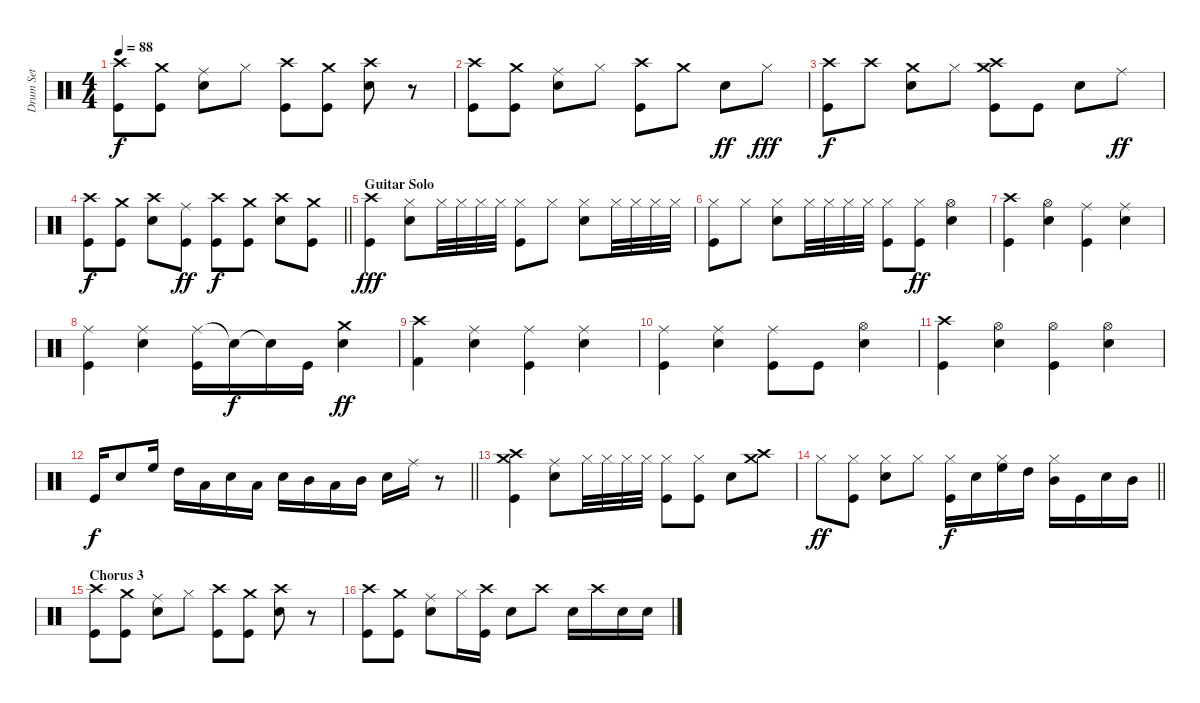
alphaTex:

\track ("Drum Set" "Drum Set") {instrument percussion}
\staff {score}
\articulation defaults
\ts (4 4)
\tempo 88
\clef neutral
\ks c
("Crash high (hit)" "Kick (hit)").8{dy f} ("Crash medium (hit)" "Kick (hit)").8 ("Ride (middle)" "Snare (hit) 2").8 "Hi-Hat (closed)".8 ("Crash high (hit)" "Kick (hit)").8 ("Crash medium (hit)" "Kick (hit)").8 ("Crash high (hit)" "Snare (hit) 2").8 r.8 |
("Crash high (hit)" "Kick (hit)").8 ("Crash medium (hit)" "Kick (hit)").8 ("Ride (middle)" "Snare (hit) 2").8 "Hi-Hat (closed)".8 ("Crash high (hit)" "Kick (hit)").8 "Crash medium (hit)".8 "Snare (hit) 2".8{dy ff} "Hi-Hat (closed)".8{dy fff} |
("Crash high (hit)" "Kick (hit)").8{dy f} "Crash high (hit)".8 ("Crash medium (hit)" "Snare (hit) 2").8 "Hi-Hat (closed)".8 ("Crash high (hit)" "Crash medium (hit)" "Kick (hit)").8 "Kick (hit)".8 "Snare (hit) 2".8 "Ride (middle)".8{dy ff} |
\barLineRight lightlight
("Crash high (hit)" "Kick (hit)").8{dy f} ("Crash medium (hit)" "Kick (hit)").8 ("Crash high (hit)" "Snare (hit) 2").8 ("Ride (middle)" "Kick (hit)").8{dy ff} ("Crash high (hit)" "Kick (hit)").8{dy f} ("Crash medium (hit)" "Kick (hit)").8 ("Crash high (hit)" "Snare (hit) 2").8 ("Crash medium (hit)" "Kick (hit)").8 |
\section ("" "Guitar Solo")
("Crash high (hit)" "Kick (hit)").4{dy fff} ("Hi-Hat (closed)" "Snare (hit) 2").8 "Hi-Hat (closed)".32 "Hi-Hat (closed)".32 "Hi-Hat (closed)".32 "Hi-Hat (closed)".32 ("Hi-Hat (closed)" "Kick (hit)").8 "Hi-Hat (closed)".8 ("Hi-Hat (closed)" "Snare (hit) 2").8 "Hi-Hat (closed)".32 "Hi-Hat (closed)".32 "Hi-Hat (closed)".32 "Hi-Hat (closed)".32 |
("Hi-Hat (closed)" "Kick (hit)").8 "Hi-Hat (closed)".8 ("Hi-Hat (closed)" "Snare (hit) 2").8 "Hi-Hat (closed)".32 "Hi-Hat (closed)".32 "Hi-Hat (closed)".32 "Hi-Hat (closed)".32 ("Hi-Hat (closed)" "Kick (hit)").8 ("Hi-Hat (closed)" "Kick (hit)").8{dy ff} ("Hi-Hat (open)" "Snare (hit) 2").4 |
("Crash high (hit)" "Kick (hit)").4 ("Hi-Hat (open)" "Snare (hit) 2").4 ("Ride (middle)" "Kick (hit)").4 ("Ride (middle)" "Snare (hit) 2").4 |
("Ride (middle)" "Kick (hit)").4 ("Ride (middle)" "Snare (hit) 2").4 ("Ride (middle)" "Kick (hit)").16 "Snare (hit)"{t}.16{dy f} "Snare (hit)"{t}.16 "Kick (hit)".16 ("Crash medium (hit)" "Snare (hit) 2").4{dy ff} |
("Crash high (hit)" "Kick (hit) 2").4 ("Ride (middle)" "Snare (hit) 2").4 ("Ride (middle)" "Kick (hit)").4 ("Ride (middle)" "Snare (hit) 2").4 |
("Ride (middle)" "Kick (hit)").4 ("Ride (middle)" "Snare (hit) 2").4 ("Ride (middle)" "Kick (hit)").8 "Kick (hit)".8 ("Hi-Hat (open)" "Snare (hit) 2").4 |
("Crash high (hit)" "Kick (hit)").4 ("Hi-Hat (open)" "Snare (hit) 2").4 ("Hi-Hat (open)" "Kick (hit)").4 ("Hi-Hat (open)" "Snare (hit) 2").4 |
\barLineRight lightlight "Kick (hit)".16{dy f} "Snare (hit) 2".8 "High Floor Tom (hit)".16 "High Tom (hit)".16 "Low Tom (hit)".16 "Snare (hit) 2".16 "Low Tom (hit)".16 "Snare (hit) 2".16 "Mid Tom (hit)".16 "Low Tom (hit)".16 "Mid Tom (hit)".16 "Snare (hit) 2".16 "Ride (middle)".16
r.8 |
("Crash high (hit)" "Crash medium (hit)" "Kick (hit)").4 ("Ride (middle)" "Snare (hit) 2").8 "Hi-Hat (closed)".32 "Hi-Hat (closed)".32 "Hi-Hat (closed)".32 "Hi-Hat (closed)".32 ("Hi-Hat (closed)" "Kick (hit)").8 ("Hi-Hat (closed)" "Kick (hit)").8 "Snare (hit) 2".8 ("Crash high (hit)" "Crash medium (hit)").8 |
\barLineRight lightlight "Hi-Hat (closed)".8{dy ff}
("Hi-Hat (closed)" "Kick (hit)").8 ("Hi-Hat (closed)" "Snare (hit) 2").8 "Hi-Hat (closed)".8 ("Hi-Hat (closed)" "Kick (hit)").16{dy f} "Snare (hit) 2".16 ("High Floor Tom (hit)" "Hi-Hat (closed)").16 "High Tom (hit)".16 ("Hi-Hat (closed)" "Mid Tom (hit)").16 "Kick (hit)".16 "Snare (hit) 2".16 "Mid Tom (hit)".16 |
\section ("" "Chorus 3")
("Crash high (hit)" "Kick (hit)").8 ("Crash medium (hit)" "Kick (hit)").8 ("Ride (middle)" "Snare (hit) 2").8 "Hi-Hat (closed)".8 ("Crash high (hit)" "Kick (hit)").8 ("Crash medium (hit)" "Kick (hit)").8 ("Crash high (hit)" "Snare (hit) 2").8 r.8 |
("Crash high (hit)" "Kick (hit)").8 ("Crash medium (hit)" "Kick (hit)").8 ("Ride (middle)" "Snare (hit) 2").8 "Hi-Hat (closed)".16 ("Crash high (hit)" "Kick (hit)").16 "Snare (hit) 2".8 "Crash high (hit)".8 "Snare (hit) 2".16 "Crash high (hit)".16 "Snare (hit) 2".16 "Snare (hit) 2".16
